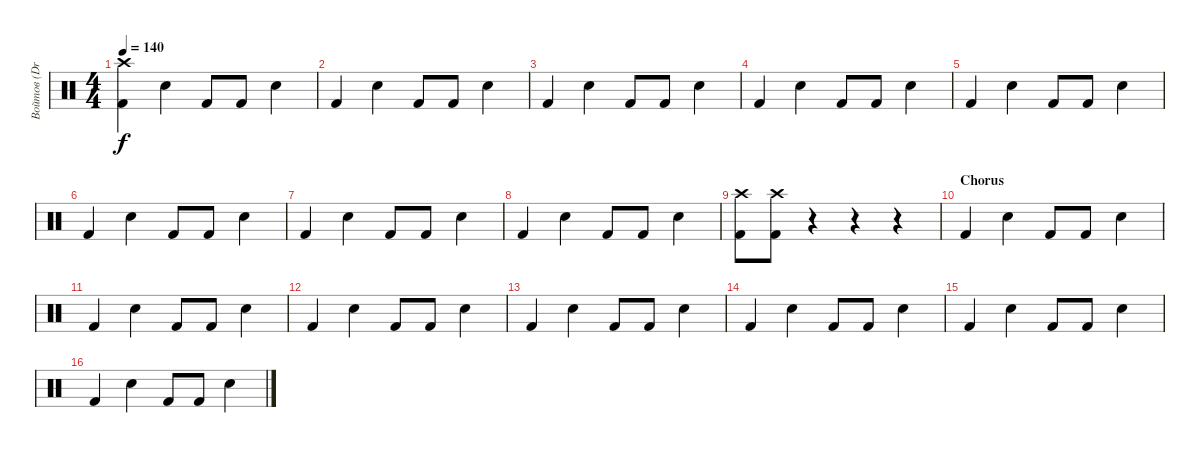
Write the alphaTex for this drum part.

\track ("Войтов (Drums)" "Войтов (Dr") {instrument percussion}
\staff {score}
\articulation defaults
\ts (4 4)
\tempo 140
\clef neutral
\ks c
("Kick (hit) 2" "Crash high (hit)").4{dy f} "Electric Snare (hit)".4 "Kick (hit) 2".8 "Kick (hit) 2".8 "Electric Snare (hit)".4 |
"Kick (hit) 2".4 "Electric Snare (hit)".4 "Kick (hit) 2".8 "Kick (hit) 2".8 "Electric Snare (hit)".4 |
"Kick (hit) 2".4 "Electric Snare (hit)".4 "Kick (hit) 2".8 "Kick (hit) 2".8 "Electric Snare (hit)".4 |
"Kick (hit) 2".4 "Electric Snare (hit)".4 "Kick (hit) 2".8 "Kick (hit) 2".8 "Electric Snare (hit)".4 |
"Kick (hit) 2".4 "Electric Snare (hit)".4 "Kick (hit) 2".8 "Kick (hit) 2".8 "Electric Snare (hit)".4 |
"Kick (hit) 2".4 "Electric Snare (hit)".4 "Kick (hit) 2".8 "Kick (hit) 2".8 "Electric Snare (hit)".4 |
"Kick (hit) 2".4 "Electric Snare (hit)".4 "Kick (hit) 2".8 "Kick (hit) 2".8 "Electric Snare (hit)".4 |
"Kick (hit) 2".4 "Electric Snare (hit)".4 "Kick (hit) 2".8 "Kick (hit) 2".8 "Electric Snare (hit)".4 |
("Kick (hit) 2" "Crash high (hit)").8 ("Kick (hit) 2" "Crash high (hit)").8 r.4 r.4 r.4 |
\section ("" "Chorus")
"Kick (hit) 2".4 "Electric Snare (hit)".4 "Kick (hit) 2".8 "Kick (hit) 2".8 "Electric Snare (hit)".4 |
"Kick (hit) 2".4 "Electric Snare (hit)".4 "Kick (hit) 2".8 "Kick (hit) 2".8 "Electric Snare (hit)".4 |
"Kick (hit) 2".4 "Electric Snare (hit)".4 "Kick (hit) 2".8 "Kick (hit) 2".8 "Electric Snare (hit)".4 |
"Kick (hit) 2".4 "Electric Snare (hit)".4 "Kick (hit) 2".8 "Kick (hit) 2".8 "Electric Snare (hit)".4 |
"Kick (hit) 2".4 "Electric Snare (hit)".4 "Kick (hit) 2".8 "Kick (hit) 2".8 "Electric Snare (hit)".4 |
"Kick (hit) 2".4 "Electric Snare (hit)".4 "Kick (hit) 2".8 "Kick (hit) 2".8 "Electric Snare (hit)".4 |
"Kick (hit) 2".4 "Electric Snare (hit)".4 "Kick (hit) 2".8 "Kick (hit) 2".8 "Electric Snare (hit)".4
